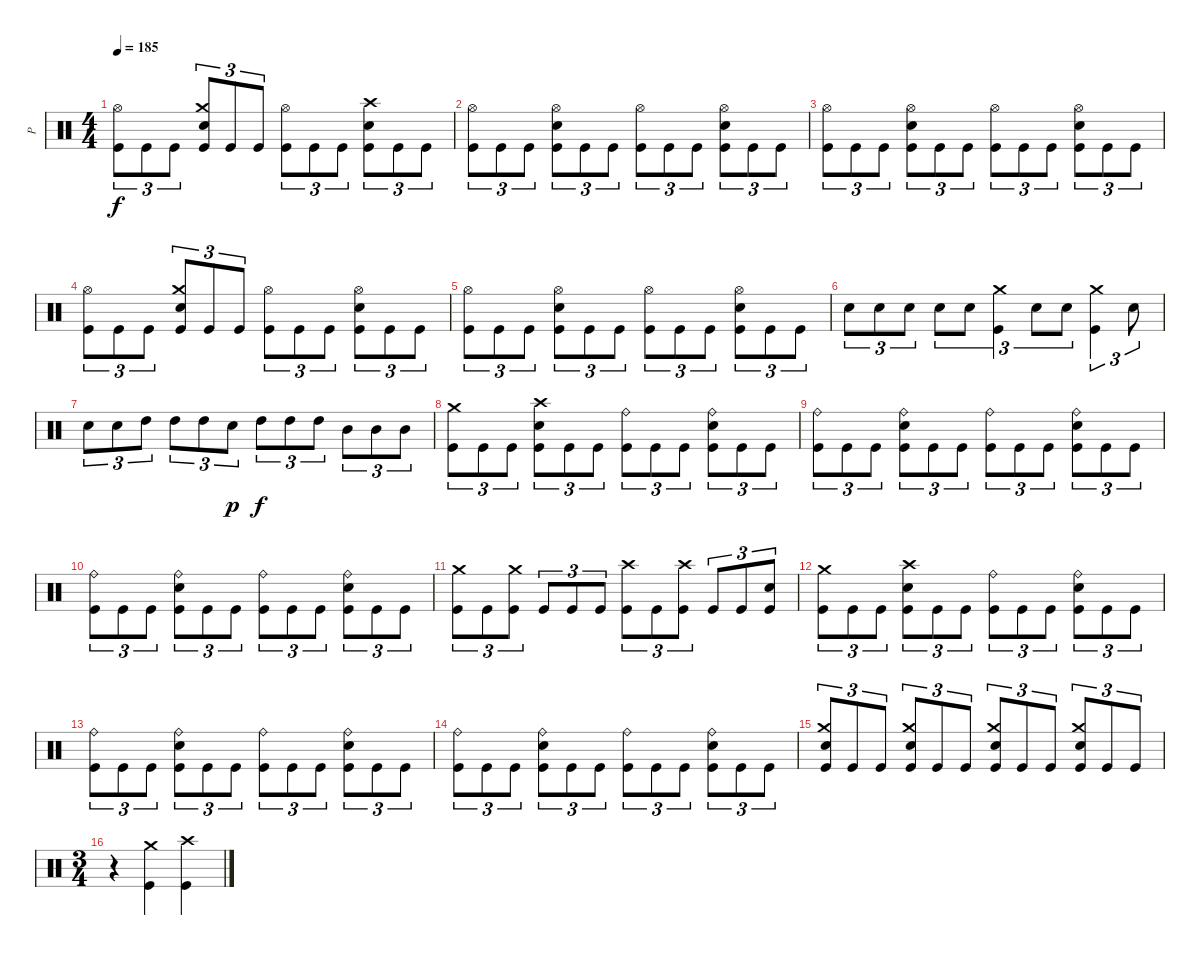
\track ("P" "P") {instrument percussion}
\staff {score}
\articulation defaults
\ts (4 4)
\tempo 185
\clef neutral
\ks c
("Hi-Hat (open)" "Kick (hit)").8{tu (3 2) dy f} "Kick (hit)".8{tu (3 2)} "Kick (hit)".8{tu (3 2)} ("Crash medium (hit)" "Electric Snare (hit)" "Kick (hit)").8{tu (3 2)} "Kick (hit)".8{tu (3 2)} "Kick (hit)".8{tu (3 2)} ("Hi-Hat (open)" "Kick (hit)").8{tu (3 2)} "Kick (hit)".8{tu (3 2)} "Kick (hit)".8{tu (3 2)} ("Crash high (hit)" "Electric Snare (hit)" "Kick (hit)").8{tu (3 2)} "Kick (hit)".8{tu (3 2)} "Kick (hit)".8{tu (3 2)} |
("Hi-Hat (open)" "Kick (hit)").8{tu (3 2)} "Kick (hit)".8{tu (3 2)} "Kick (hit)".8{tu (3 2)} ("Hi-Hat (open)" "Electric Snare (hit)" "Kick (hit)").8{tu (3 2)} "Kick (hit)".8{tu (3 2)} "Kick (hit)".8{tu (3 2)} ("Hi-Hat (open)" "Kick (hit)").8{tu (3 2)} "Kick (hit)".8{tu (3 2)} "Kick (hit)".8{tu (3 2)} ("Hi-Hat (open)" "Electric Snare (hit)" "Kick (hit)").8{tu (3 2)} "Kick (hit)".8{tu (3 2)} "Kick (hit)".8{tu (3 2)} |
("Hi-Hat (open)" "Kick (hit)").8{tu (3 2)} "Kick (hit)".8{tu (3 2)} "Kick (hit)".8{tu (3 2)} ("Hi-Hat (open)" "Electric Snare (hit)" "Kick (hit)").8{tu (3 2)} "Kick (hit)".8{tu (3 2)} "Kick (hit)".8{tu (3 2)} ("Hi-Hat (open)" "Kick (hit)").8{tu (3 2)} "Kick (hit)".8{tu (3 2)} "Kick (hit)".8{tu (3 2)} ("Hi-Hat (open)" "Electric Snare (hit)" "Kick (hit)").8{tu (3 2)} "Kick (hit)".8{tu (3 2)} "Kick (hit)".8{tu (3 2)} |
("Hi-Hat (open)" "Kick (hit)").8{tu (3 2)} "Kick (hit)".8{tu (3 2)} "Kick (hit)".8{tu (3 2)} ("Crash medium (hit)" "Electric Snare (hit)" "Kick (hit)").8{tu (3 2)} "Kick (hit)".8{tu (3 2)} "Kick (hit)".8{tu (3 2)} ("Hi-Hat (open)" "Kick (hit)").8{tu (3 2)} "Kick (hit)".8{tu (3 2)} "Kick (hit)".8{tu (3 2)} ("Hi-Hat (open)" "Electric Snare (hit)" "Kick (hit)").8{tu (3 2)} "Kick (hit)".8{tu (3 2)} "Kick (hit)".8{tu (3 2)} |
("Hi-Hat (open)" "Kick (hit)").8{tu (3 2)} "Kick (hit)".8{tu (3 2)} "Kick (hit)".8{tu (3 2)} ("Hi-Hat (open)" "Electric Snare (hit)" "Kick (hit)").8{tu (3 2)} "Kick (hit)".8{tu (3 2)} "Kick (hit)".8{tu (3 2)} ("Hi-Hat (open)" "Kick (hit)").8{tu (3 2)} "Kick (hit)".8{tu (3 2)} "Kick (hit)".8{tu (3 2)} ("Hi-Hat (open)" "Electric Snare (hit)" "Kick (hit)").8{tu (3 2)} "Kick (hit)".8{tu (3 2)} "Kick (hit)".8{tu (3 2)} |
"Electric Snare (hit)".8{tu (3 2)} "Electric Snare (hit)".8{tu (3 2)} "Electric Snare (hit)".8{tu (3 2)} "Electric Snare (hit)".8{tu (3 2)} "Electric Snare (hit)".8{tu (3 2)} ("Crash medium (hit)" "Kick (hit)").4{tu (3 2)} "Electric Snare (hit)".8{tu (3 2)} "Electric Snare (hit)".8{tu (3 2)} ("Crash medium (hit)" "Kick (hit)").4{tu (3 2)} "Electric Snare (hit)".8{tu (3 2)} |
"Electric Snare (hit)".8{tu (3 2)} "Electric Snare (hit)".8{tu (3 2)} "High Tom (hit)".8{tu (3 2)} "High Tom (hit)".8{tu (3 2)} "High Tom (hit)".8{tu (3 2)} "Electric Snare (hit)".8{tu (3 2) dy p} "High Tom (hit)".8{tu (3 2) dy f} "High Tom (hit)".8{tu (3 2)} "High Tom (hit)".8{tu (3 2)} "Mid Tom (hit)".8{tu (3 2)} "Mid Tom (hit)".8{tu (3 2)} "Mid Tom (hit)".8{tu (3 2)} |
("Crash medium (hit)" "Kick (hit)").8{tu (3 2)} "Kick (hit)".8{tu (3 2)} "Kick (hit)".8{tu (3 2)} ("Crash high (hit)" "Electric Snare (hit)" "Kick (hit)").8{tu (3 2)} "Kick (hit)".8{tu (3 2)} "Kick (hit)".8{tu (3 2)} ("Ride (bell)" "Kick (hit)").8{tu (3 2)} "Kick (hit)".8{tu (3 2)} "Kick (hit)".8{tu (3 2)} ("Ride (bell)" "Electric Snare (hit)" "Kick (hit)").8{tu (3 2)} "Kick (hit)".8{tu (3 2)} "Kick (hit)".8{tu (3 2)} |
("Ride (bell)" "Kick (hit)").8{tu (3 2)} "Kick (hit)".8{tu (3 2)} "Kick (hit)".8{tu (3 2)} ("Ride (bell)" "Electric Snare (hit)" "Kick (hit)").8{tu (3 2)} "Kick (hit)".8{tu (3 2)} "Kick (hit)".8{tu (3 2)} ("Ride (bell)" "Kick (hit)").8{tu (3 2)} "Kick (hit)".8{tu (3 2)} "Kick (hit)".8{tu (3 2)} ("Ride (bell)" "Electric Snare (hit)" "Kick (hit)").8{tu (3 2)} "Kick (hit)".8{tu (3 2)} "Kick (hit)".8{tu (3 2)} |
("Ride (bell)" "Kick (hit)").8{tu (3 2)} "Kick (hit)".8{tu (3 2)} "Kick (hit)".8{tu (3 2)} ("Ride (bell)" "Electric Snare (hit)" "Kick (hit)").8{tu (3 2)} "Kick (hit)".8{tu (3 2)} "Kick (hit)".8{tu (3 2)} ("Ride (bell)" "Kick (hit)").8{tu (3 2)} "Kick (hit)".8{tu (3 2)} "Kick (hit)".8{tu (3 2)} ("Ride (bell)" "Electric Snare (hit)" "Kick (hit)").8{tu (3 2)} "Kick (hit)".8{tu (3 2)} "Kick (hit)".8{tu (3 2)} |
("Crash medium (hit)" "Kick (hit)").8{tu (3 2)} "Kick (hit)".8{tu (3 2)} ("Crash medium (hit)" "Kick (hit)").8{tu (3 2)} "Kick (hit)".8{tu (3 2)} "Kick (hit)".8{tu (3 2)} "Kick (hit)".8{tu (3 2)} ("Crash high (hit)" "Kick (hit)").8{tu (3 2)} "Kick (hit)".8{tu (3 2)} ("Crash high (hit)" "Kick (hit)").8{tu (3 2)} "Kick (hit)".8{tu (3 2)} "Kick (hit)".8{tu (3 2)} ("Electric Snare (hit)" "Kick (hit)").8{tu (3 2)} |
("Crash medium (hit)" "Kick (hit)").8{tu (3 2)} "Kick (hit)".8{tu (3 2)} "Kick (hit)".8{tu (3 2)} ("Crash high (hit)" "Electric Snare (hit)" "Kick (hit)").8{tu (3 2)} "Kick (hit)".8{tu (3 2)} "Kick (hit)".8{tu (3 2)} ("Ride (bell)" "Kick (hit)").8{tu (3 2)} "Kick (hit)".8{tu (3 2)} "Kick (hit)".8{tu (3 2)} ("Ride (bell)" "Electric Snare (hit)" "Kick (hit)").8{tu (3 2)} "Kick (hit)".8{tu (3 2)} "Kick (hit)".8{tu (3 2)} |
("Ride (bell)" "Kick (hit)").8{tu (3 2)} "Kick (hit)".8{tu (3 2)} "Kick (hit)".8{tu (3 2)} ("Ride (bell)" "Electric Snare (hit)" "Kick (hit)").8{tu (3 2)} "Kick (hit)".8{tu (3 2)} "Kick (hit)".8{tu (3 2)} ("Ride (bell)" "Kick (hit)").8{tu (3 2)} "Kick (hit)".8{tu (3 2)} "Kick (hit)".8{tu (3 2)} ("Ride (bell)" "Electric Snare (hit)" "Kick (hit)").8{tu (3 2)} "Kick (hit)".8{tu (3 2)} "Kick (hit)".8{tu (3 2)} |
("Ride (bell)" "Kick (hit)").8{tu (3 2)} "Kick (hit)".8{tu (3 2)} "Kick (hit)".8{tu (3 2)} ("Ride (bell)" "Electric Snare (hit)" "Kick (hit)").8{tu (3 2)} "Kick (hit)".8{tu (3 2)} "Kick (hit)".8{tu (3 2)} ("Ride (bell)" "Kick (hit)").8{tu (3 2)} "Kick (hit)".8{tu (3 2)} "Kick (hit)".8{tu (3 2)} ("Ride (bell)" "Electric Snare (hit)" "Kick (hit)").8{tu (3 2)} "Kick (hit)".8{tu (3 2)} "Kick (hit)".8{tu (3 2)} |
("Crash medium (hit)" "Electric Snare (hit)" "Kick (hit)").8{tu (3 2)} "Kick (hit)".8{tu (3 2)} "Kick (hit)".8{tu (3 2)} ("Crash medium (hit)" "Electric Snare (hit)" "Kick (hit)").8{tu (3 2)} "Kick (hit)".8{tu (3 2)} "Kick (hit)".8{tu (3 2)} ("Crash medium (hit)" "Electric Snare (hit)" "Kick (hit)").8{tu (3 2)} "Kick (hit)".8{tu (3 2)} "Kick (hit)".8{tu (3 2)} ("Crash medium (hit)" "Electric Snare (hit)" "Kick (hit)").8{tu (3 2)} "Kick (hit)".8{tu (3 2)} "Kick (hit)".8{tu (3 2)} |
\ts (3 4)
r.4 ("Crash medium (hit)" "Kick (hit)").4 ("Crash high (hit)" "Kick (hit)").4
